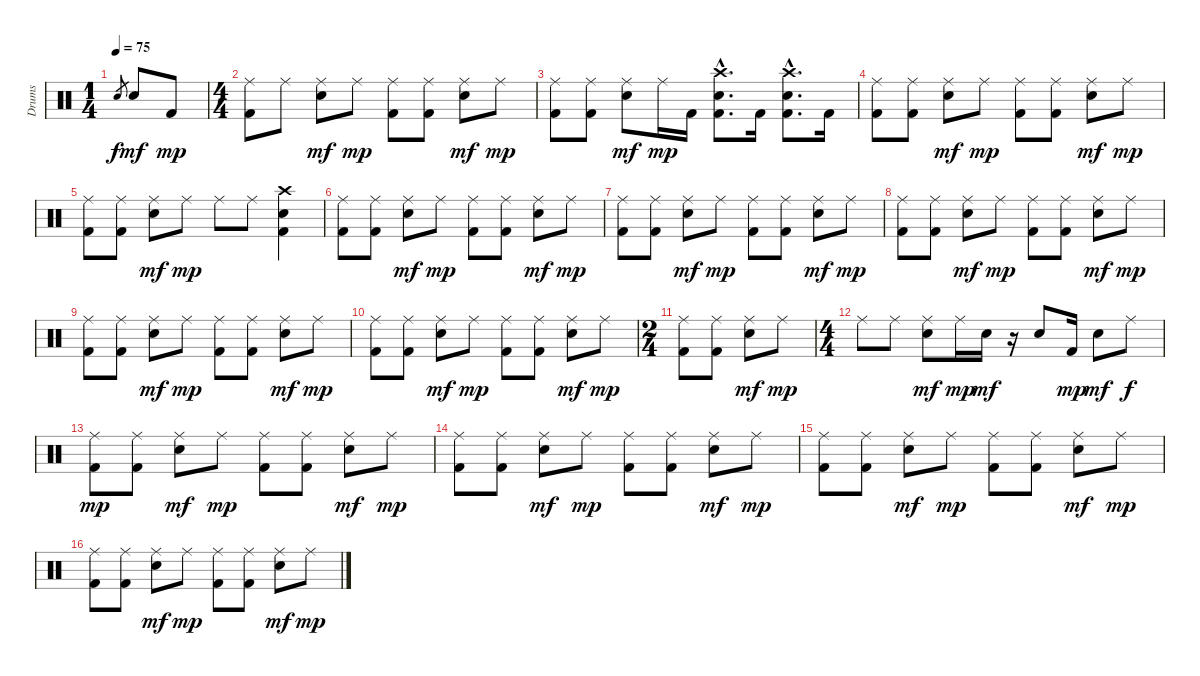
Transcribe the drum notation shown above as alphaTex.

\track ("Drums" "Drums") {instrument percussion}
\staff {score}
\articulation defaults
\ts (1 4)
\tempo 75
\clef neutral
\ks c "Electric Snare (hit)".8{gr dy f} "Electric Snare (hit)".8{dy mf} "Kick (hit) 2".8{dy mp}
|
\ts (4 4)
("Ride (middle)" "Kick (hit) 2").8 "Ride (middle)".8 ("Ride (middle)" "Electric Snare (hit)").8{dy mf} "Ride (middle)".8{dy mp} ("Ride (middle)" "Kick (hit) 2").8 ("Ride (middle)" "Kick (hit) 2").8 ("Ride (middle)" "Electric Snare (hit)").8{dy mf} "Ride (middle)".8{dy mp} |
("Ride (middle)" "Kick (hit) 2").8 ("Ride (middle)" "Kick (hit) 2").8 ("Ride (middle)" "Electric Snare (hit)").8{dy mf} "Ride (middle)".16{dy mp} "Kick (hit) 2".16 ("Crash high (hit)"{hac} "Electric Snare (hit)"{hac} "Kick (hit) 2"{hac}).8{d} "Kick (hit) 2".16 ("Crash high (hit)"{hac} "Electric Snare (hit)"{hac} "Kick (hit) 2"{hac}).8{d} "Kick (hit) 2".16 |
("Ride (middle)" "Kick (hit) 2").8 ("Ride (middle)" "Kick (hit) 2").8 ("Ride (middle)" "Electric Snare (hit)").8{dy mf} "Ride (middle)".8{dy mp} ("Ride (middle)" "Kick (hit) 2").8 ("Ride (middle)" "Kick (hit) 2").8 ("Ride (middle)" "Electric Snare (hit)").8{dy mf} "Ride (middle)".8{dy mp} |
("Ride (middle)" "Kick (hit) 2").8 ("Ride (middle)" "Kick (hit) 2").8 ("Ride (middle)" "Electric Snare (hit)").8{dy mf} "Ride (middle)".8{dy mp} "Ride (middle)".8 "Ride (middle)".8 ("Crash high (hit)" "Electric Snare (hit)" "Kick (hit) 2").4 |
("Ride (middle)" "Kick (hit) 2").8 ("Ride (middle)" "Kick (hit) 2").8 ("Ride (middle)" "Electric Snare (hit)").8{dy mf} "Ride (middle)".8{dy mp} ("Ride (middle)" "Kick (hit) 2").8 ("Ride (middle)" "Kick (hit) 2").8 ("Ride (middle)" "Electric Snare (hit)").8{dy mf} "Ride (middle)".8{dy mp} |
("Ride (middle)" "Kick (hit) 2").8 ("Ride (middle)" "Kick (hit) 2").8 ("Ride (middle)" "Electric Snare (hit)").8{dy mf} "Ride (middle)".8{dy mp} ("Ride (middle)" "Kick (hit) 2").8 ("Ride (middle)" "Kick (hit) 2").8 ("Ride (middle)" "Electric Snare (hit)").8{dy mf} "Ride (middle)".8{dy mp} |
("Ride (middle)" "Kick (hit) 2").8 ("Ride (middle)" "Kick (hit) 2").8 ("Ride (middle)" "Electric Snare (hit)").8{dy mf} "Ride (middle)".8{dy mp} ("Ride (middle)" "Kick (hit) 2").8 ("Ride (middle)" "Kick (hit) 2").8 ("Ride (middle)" "Electric Snare (hit)").8{dy mf} "Ride (middle)".8{dy mp} |
("Ride (middle)" "Kick (hit) 2").8 ("Ride (middle)" "Kick (hit) 2").8 ("Ride (middle)" "Electric Snare (hit)").8{dy mf} "Ride (middle)".8{dy mp} ("Ride (middle)" "Kick (hit) 2").8 ("Ride (middle)" "Kick (hit) 2").8 ("Ride (middle)" "Electric Snare (hit)").8{dy mf} "Ride (middle)".8{dy mp} |
("Ride (middle)" "Kick (hit) 2").8 ("Ride (middle)" "Kick (hit) 2").8 ("Ride (middle)" "Electric Snare (hit)").8{dy mf} "Ride (middle)".8{dy mp} ("Ride (middle)" "Kick (hit) 2").8 ("Ride (middle)" "Kick (hit) 2").8 ("Ride (middle)" "Electric Snare (hit)").8{dy mf} "Ride (middle)".8{dy mp} |
\ts (2 4)
("Ride (middle)" "Kick (hit) 2").8 ("Ride (middle)" "Kick (hit) 2").8 ("Ride (middle)" "Electric Snare (hit)").8{dy mf} "Ride (middle)".8{dy mp} |
\ts (4 4)
"Ride (middle)".8 "Ride (middle)".8 ("Ride (middle)" "Electric Snare (hit)").8{dy mf} "Ride (middle)".16{dy mp} "Electric Snare (hit)".16{dy mf} r.16 "Electric Snare (hit)".8 "Kick (hit) 2".16{dy mp} "Electric Snare (hit)".8{dy mf} "Ride (middle)".8{dy f} |
("Ride (middle)" "Kick (hit) 2").8{dy mp} ("Ride (middle)" "Kick (hit) 2").8 ("Ride (middle)" "Electric Snare (hit)").8{dy mf} "Ride (middle)".8{dy mp} ("Ride (middle)" "Kick (hit) 2").8 ("Ride (middle)" "Kick (hit) 2").8 ("Ride (middle)" "Electric Snare (hit)").8{dy mf} "Ride (middle)".8{dy mp} |
("Ride (middle)" "Kick (hit) 2").8 ("Ride (middle)" "Kick (hit) 2").8 ("Ride (middle)" "Electric Snare (hit)").8{dy mf} "Ride (middle)".8{dy mp} ("Ride (middle)" "Kick (hit) 2").8 ("Ride (middle)" "Kick (hit) 2").8 ("Ride (middle)" "Electric Snare (hit)").8{dy mf} "Ride (middle)".8{dy mp} |
("Ride (middle)" "Kick (hit) 2").8 ("Ride (middle)" "Kick (hit) 2").8 ("Ride (middle)" "Electric Snare (hit)").8{dy mf} "Ride (middle)".8{dy mp} ("Ride (middle)" "Kick (hit) 2").8 ("Ride (middle)" "Kick (hit) 2").8 ("Ride (middle)" "Electric Snare (hit)").8{dy mf} "Ride (middle)".8{dy mp} |
("Ride (middle)" "Kick (hit) 2").8 ("Ride (middle)" "Kick (hit) 2").8 ("Ride (middle)" "Electric Snare (hit)").8{dy mf} "Ride (middle)".8{dy mp} ("Ride (middle)" "Kick (hit) 2").8 ("Ride (middle)" "Kick (hit) 2").8 ("Ride (middle)" "Electric Snare (hit)").8{dy mf} "Ride (middle)".8{dy mp}
